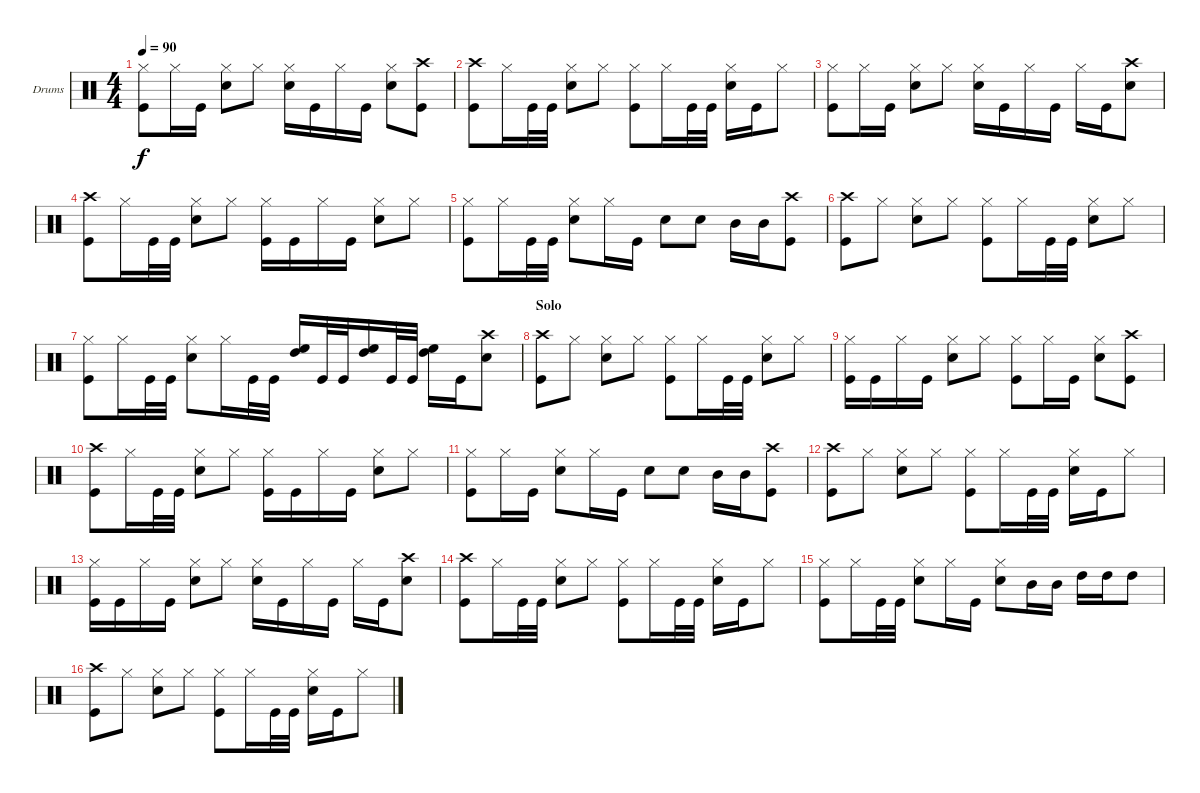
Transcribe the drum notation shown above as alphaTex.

\bracketExtendMode groupsimilarinstruments
\firstSystemTrackNameOrientation horizontal
\otherSystemsTrackNameOrientation horizontal
\track ("Drums" "Drums") {instrument percussion}
\staff {score}
\articulation defaults
\ts (4 4)
\tempo 90
\clef neutral
\ks c
("Hi-Hat (closed)" "Kick (hit)").8{dy f} "Hi-Hat (closed)".16 "Kick (hit)".16 ("Snare (hit) 2" "Hi-Hat (closed)").8 "Hi-Hat (closed)".8 ("Snare (hit) 2" "Hi-Hat (closed)").16 "Kick (hit)".16 "Hi-Hat (closed)".16 "Kick (hit)".16 ("Snare (hit) 2" "Hi-Hat (closed)").8 ("Crash high (hit)" "Kick (hit)").8 |
("Crash high (hit)" "Kick (hit)").8 "Hi-Hat (closed)".16 "Kick (hit)".32 "Kick (hit)".32 ("Snare (hit) 2" "Hi-Hat (closed)").8 "Hi-Hat (closed)".8 ("Hi-Hat (closed)" "Kick (hit)").8 "Hi-Hat (closed)".16 "Kick (hit)".32 "Kick (hit)".32 ("Snare (hit) 2" "Hi-Hat (closed)").16 "Kick (hit)".16 "Hi-Hat (closed)".8 |
("Kick (hit)" "Hi-Hat (closed)").8 "Hi-Hat (closed)".16 "Kick (hit)".16 ("Snare (hit) 2" "Hi-Hat (closed)").8 "Hi-Hat (closed)".8 ("Snare (hit) 2" "Hi-Hat (closed)").16 "Kick (hit)".16 "Hi-Hat (closed)".16 "Kick (hit)".16 "Hi-Hat (closed)".16 "Kick (hit)".16 ("Crash high (hit)" "Snare (hit) 2").8 |
("Crash high (hit)" "Kick (hit)").8 "Hi-Hat (closed)".16 "Kick (hit)".32 "Kick (hit)".32 ("Snare (hit) 2" "Hi-Hat (closed)").8 "Hi-Hat (closed)".8 ("Kick (hit)" "Hi-Hat (closed)").16 "Kick (hit)".16 "Hi-Hat (closed)".16 "Kick (hit)".16 ("Snare (hit) 2" "Hi-Hat (closed)").8 "Hi-Hat (closed)".8 |
("Hi-Hat (closed)" "Kick (hit)").8 "Hi-Hat (closed)".16 "Kick (hit)".32 "Kick (hit)".32 ("Snare (hit) 2" "Hi-Hat (closed)").8 "Hi-Hat (closed)".16 "Kick (hit)".16 "Snare (hit) 2".8 "Snare (hit) 2".8 "Mid Tom (hit)".16 "Mid Tom (hit)".16 ("Crash high (hit)" "Kick (hit)").8 |
("Kick (hit)" "Crash high (hit)").8 "Hi-Hat (closed)".8 ("Snare (hit) 2" "Hi-Hat (closed)").8 "Hi-Hat (closed)".8 ("Hi-Hat (closed)" "Kick (hit)").8 "Hi-Hat (closed)".16 "Kick (hit)".32 "Kick (hit)".32 ("Snare (hit) 2" "Hi-Hat (closed)").8 "Hi-Hat (closed)".8 |
("Hi-Hat (closed)" "Kick (hit)").8 "Hi-Hat (closed)".16 "Kick (hit)".32 "Kick (hit)".32 ("Snare (hit) 2" "Hi-Hat (closed)").8 "Hi-Hat (closed)".16 "Kick (hit)".32 "Kick (hit)".32 ("High Floor Tom (hit)" "High Tom (hit)").16 "Kick (hit)".32 "Kick (hit)".32 ("High Floor Tom (hit)" "High Tom (hit)").16 "Kick (hit)".32 "Kick (hit)".32 ("High Floor Tom (hit)" "High Tom (hit)").16 "Kick (hit)".16 ("Crash high (hit)" "Snare (hit) 2").8 |
\section ("" "Solo")
("Kick (hit)" "Crash high (hit)").8 "Hi-Hat (closed)".8 ("Snare (hit) 2" "Hi-Hat (closed)").8 "Hi-Hat (closed)".8 ("Hi-Hat (closed)" "Kick (hit)").8 "Hi-Hat (closed)".16 "Kick (hit)".32 "Kick (hit)".32 ("Snare (hit) 2" "Hi-Hat (closed)").8 "Hi-Hat (closed)".8 |
("Kick (hit)" "Hi-Hat (closed)").16 "Kick (hit)".16 "Hi-Hat (closed)".16 "Kick (hit)".16 ("Snare (hit) 2" "Hi-Hat (closed)").8 "Hi-Hat (closed)".8 ("Kick (hit)" "Hi-Hat (closed)").8 "Hi-Hat (closed)".16 "Kick (hit)".16 ("Snare (hit) 2" "Hi-Hat (closed)").8 ("Kick (hit)" "Crash high (hit)").8 |
("Crash high (hit)" "Kick (hit)").8 "Hi-Hat (closed)".16 "Kick (hit)".32 "Kick (hit)".32 ("Snare (hit) 2" "Hi-Hat (closed)").8 "Hi-Hat (closed)".8 ("Kick (hit)" "Hi-Hat (closed)").16 "Kick (hit)".16 "Hi-Hat (closed)".16 "Kick (hit)".16 ("Snare (hit) 2" "Hi-Hat (closed)").8 "Hi-Hat (closed)".8 |
("Kick (hit)" "Hi-Hat (closed)").8 "Hi-Hat (closed)".16 "Kick (hit)".16 ("Snare (hit) 2" "Hi-Hat (closed)").8 "Hi-Hat (closed)".16 "Kick (hit)".16 "Snare (hit) 2".8 "Snare (hit) 2".8 "Mid Tom (hit)".16 "Mid Tom (hit)".16 ("Crash high (hit)" "Kick (hit)").8 |
("Crash high (hit)" "Kick (hit)").8 "Hi-Hat (closed)".8 ("Snare (hit) 2" "Hi-Hat (closed)").8 "Hi-Hat (closed)".8 ("Hi-Hat (closed)" "Kick (hit)").8 "Hi-Hat (closed)".16 "Kick (hit)".32 "Kick (hit)".32 ("Snare (hit) 2" "Hi-Hat (closed)").16 "Kick (hit)".16 "Hi-Hat (closed)".8 |
("Kick (hit)" "Hi-Hat (closed)").16 "Kick (hit)".16 "Hi-Hat (closed)".16 "Kick (hit)".16 ("Snare (hit) 2" "Hi-Hat (closed)").8 "Hi-Hat (closed)".8 ("Hi-Hat (closed)" "Snare (hit) 2").16 "Kick (hit)".16 "Hi-Hat (closed)".16 "Kick (hit)".16 "Hi-Hat (closed)".16 "Kick (hit)".16 ("Crash high (hit)" "Snare (hit) 2").8 |
("Crash high (hit)" "Kick (hit)").8 "Hi-Hat (closed)".16 "Kick (hit)".32 "Kick (hit)".32 ("Snare (hit) 2" "Hi-Hat (closed)").8 "Hi-Hat (closed)".8 ("Hi-Hat (closed)" "Kick (hit)").8 "Hi-Hat (closed)".16 "Kick (hit)".32 "Kick (hit)".32 ("Snare (hit) 2" "Hi-Hat (closed)").16 "Kick (hit)".16 "Hi-Hat (closed)".8 |
("Hi-Hat (closed)" "Kick (hit)").8 "Hi-Hat (closed)".16 "Kick (hit)".32 "Kick (hit)".32 ("Snare (hit) 2" "Hi-Hat (closed)").8 "Hi-Hat (closed)".16 "Kick (hit)".16 ("Snare (hit) 2" "Hi-Hat (closed)").8 "Mid Tom (hit)".16 "Mid Tom (hit)".16 "High Tom (hit)".16 "High Tom (hit)".16 "High Tom (hit)".8 |
("Crash high (hit)" "Kick (hit)").8 "Hi-Hat (closed)".8 ("Snare (hit) 2" "Hi-Hat (closed)").8 "Hi-Hat (closed)".8 ("Hi-Hat (closed)" "Kick (hit)").8 "Hi-Hat (closed)".16 "Kick (hit)".32 "Kick (hit)".32 ("Snare (hit) 2" "Hi-Hat (closed)").16 "Kick (hit)".16 "Hi-Hat (closed)".8
